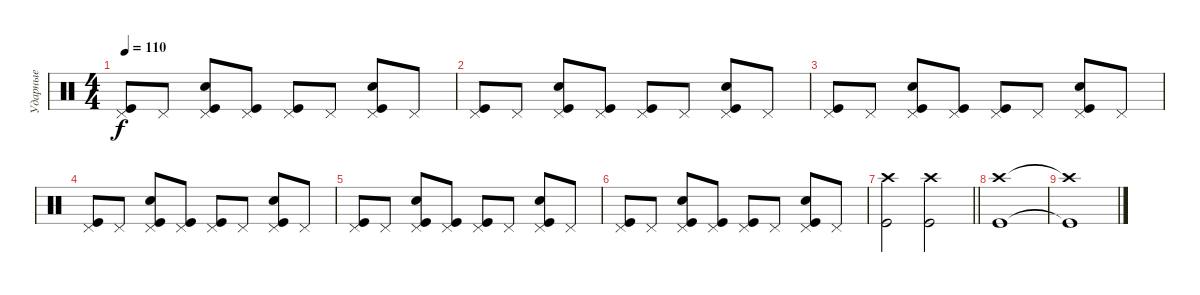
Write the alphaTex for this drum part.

\track ("Ударные" "Ударные") {instrument percussion}
\staff {score}
\articulation defaults
\ts (4 4)
\tempo 110
\clef neutral
\ks c
("Pedal Hi-Hat (hit)" "Kick (hit)").8{dy f} "Pedal Hi-Hat (hit)".8 ("Pedal Hi-Hat (hit)" "Kick (hit)" "Snare (hit) 2").8 ("Pedal Hi-Hat (hit)" "Kick (hit)").8 ("Pedal Hi-Hat (hit)" "Kick (hit)").8 "Pedal Hi-Hat (hit)".8 ("Pedal Hi-Hat (hit)" "Kick (hit)" "Snare (hit) 2").8 "Pedal Hi-Hat (hit)".8 |
("Pedal Hi-Hat (hit)" "Kick (hit)").8 "Pedal Hi-Hat (hit)".8 ("Pedal Hi-Hat (hit)" "Kick (hit)" "Snare (hit) 2").8 ("Pedal Hi-Hat (hit)" "Kick (hit)").8 ("Pedal Hi-Hat (hit)" "Kick (hit)").8 "Pedal Hi-Hat (hit)".8 ("Pedal Hi-Hat (hit)" "Kick (hit)" "Snare (hit) 2").8 "Pedal Hi-Hat (hit)".8 |
("Pedal Hi-Hat (hit)" "Kick (hit)").8 "Pedal Hi-Hat (hit)".8 ("Pedal Hi-Hat (hit)" "Kick (hit)" "Snare (hit) 2").8 ("Pedal Hi-Hat (hit)" "Kick (hit)").8 ("Pedal Hi-Hat (hit)" "Kick (hit)").8 "Pedal Hi-Hat (hit)".8 ("Pedal Hi-Hat (hit)" "Kick (hit)" "Snare (hit) 2").8 "Pedal Hi-Hat (hit)".8 |
("Pedal Hi-Hat (hit)" "Kick (hit)").8 "Pedal Hi-Hat (hit)".8 ("Pedal Hi-Hat (hit)" "Kick (hit)" "Snare (hit) 2").8 ("Pedal Hi-Hat (hit)" "Kick (hit)").8 ("Pedal Hi-Hat (hit)" "Kick (hit)").8 "Pedal Hi-Hat (hit)".8 ("Pedal Hi-Hat (hit)" "Kick (hit)" "Snare (hit) 2").8 "Pedal Hi-Hat (hit)".8 |
("Pedal Hi-Hat (hit)" "Kick (hit)").8 "Pedal Hi-Hat (hit)".8 ("Pedal Hi-Hat (hit)" "Kick (hit)" "Snare (hit) 2").8 ("Pedal Hi-Hat (hit)" "Kick (hit)").8 ("Pedal Hi-Hat (hit)" "Kick (hit)").8 "Pedal Hi-Hat (hit)".8 ("Pedal Hi-Hat (hit)" "Kick (hit)" "Snare (hit) 2").8 "Pedal Hi-Hat (hit)".8 |
("Pedal Hi-Hat (hit)" "Kick (hit)").8 "Pedal Hi-Hat (hit)".8 ("Pedal Hi-Hat (hit)" "Kick (hit)" "Snare (hit) 2").8 ("Pedal Hi-Hat (hit)" "Kick (hit)").8 ("Pedal Hi-Hat (hit)" "Kick (hit)").8 "Pedal Hi-Hat (hit)".8 ("Pedal Hi-Hat (hit)" "Kick (hit)" "Snare (hit) 2").8 "Pedal Hi-Hat (hit)".8 |
\barLineRight lightlight
("Kick (hit)" "Crash high (hit)").2 ("Kick (hit)" "Crash high (hit)").2 |
("Kick (hit)" "Crash high (hit)").1 |
("Kick (hit)"{t} "Crash high (hit)"{t}).1
